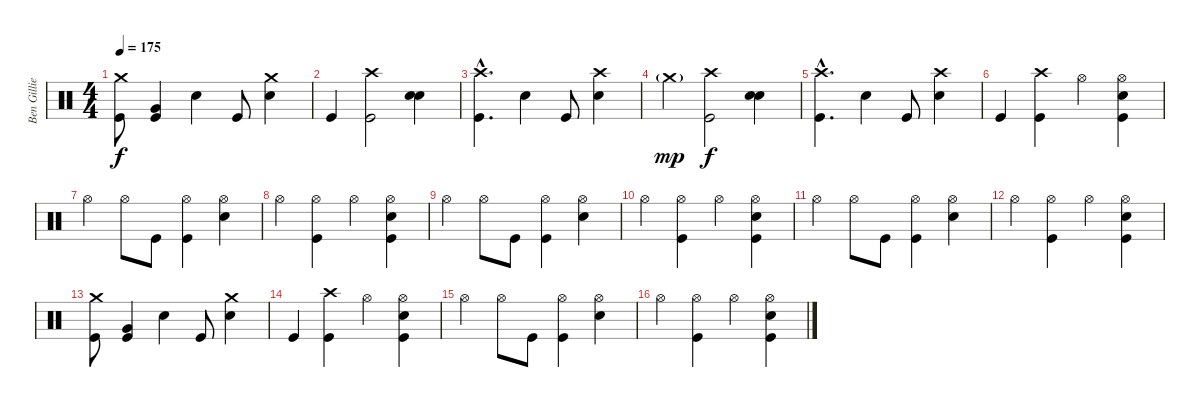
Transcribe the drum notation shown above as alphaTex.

\track ("Ben Gillies" "Ben Gillie") {instrument percussion}
\staff {score}
\articulation defaults
\ts (4 4)
\tempo 175
\clef neutral
\ks c
("Kick (hit)" "Crash medium (hit)").8{dy f} ("Kick (hit)" "Very Low Tom (hit)").4 "Snare (hit) 2".4 "Kick (hit)".8 ("Snare (hit) 2" "Crash medium (hit)").4 |
"Kick (hit)".4 ("Kick (hit)" "Crash high (hit)").2 ("Snare (hit) 2" "Snare (hit) 2").4{bu 60} |
("Kick (hit)"{hac} "Crash high (hit)"{hac}).4{d} "Snare (hit) 2".4 "Kick (hit)".8 ("Snare (hit) 2" "Crash high (hit)").4 |
"Crash medium (hit)"{g}.4{dy mp} ("Kick (hit)" "Crash high (hit)").2{dy f} ("Snare (hit) 2" "Snare (hit) 2").4{bu 60} |
("Kick (hit)"{hac} "Crash high (hit)"{hac}).4{d} "Snare (hit) 2".4 "Kick (hit)".8 ("Snare (hit) 2" "Crash high (hit)").4 |
"Kick (hit)".4 ("Kick (hit)" "Crash high (hit)").4 "Hi-Hat (open)".4 ("Kick (hit)" "Snare (hit) 2" "Hi-Hat (open)").4 |
"Hi-Hat (open)".4 "Hi-Hat (open)".8 "Kick (hit)".8 ("Kick (hit)" "Hi-Hat (open)").4 ("Snare (hit) 2" "Hi-Hat (open)").4 |
"Hi-Hat (open)".4 ("Kick (hit)" "Hi-Hat (open)").4 "Hi-Hat (open)".4 ("Kick (hit)" "Snare (hit) 2" "Hi-Hat (open)").4 |
"Hi-Hat (open)".4 "Hi-Hat (open)".8 "Kick (hit)".8 ("Kick (hit)" "Hi-Hat (open)").4 ("Snare (hit) 2" "Hi-Hat (open)").4 |
"Hi-Hat (open)".4 ("Kick (hit)" "Hi-Hat (open)").4 "Hi-Hat (open)".4 ("Kick (hit)" "Snare (hit) 2" "Hi-Hat (open)").4 |
"Hi-Hat (open)".4 "Hi-Hat (open)".8 "Kick (hit)".8 ("Kick (hit)" "Hi-Hat (open)").4 ("Snare (hit) 2" "Hi-Hat (open)").4 |
"Hi-Hat (open)".4 ("Kick (hit)" "Hi-Hat (open)").4 "Hi-Hat (open)".4 ("Kick (hit)" "Snare (hit) 2" "Hi-Hat (open)").4 |
("Kick (hit)" "Crash medium (hit)").8 ("Kick (hit)" "Very Low Tom (hit)").4 "Snare (hit) 2".4 "Kick (hit)".8 ("Snare (hit) 2" "Crash medium (hit)").4 |
"Kick (hit)".4 ("Kick (hit)" "Crash high (hit)").4 "Hi-Hat (open)".4 ("Kick (hit)" "Snare (hit) 2" "Hi-Hat (open)").4 |
"Hi-Hat (open)".4 "Hi-Hat (open)".8 "Kick (hit)".8 ("Kick (hit)" "Hi-Hat (open)").4 ("Snare (hit) 2" "Hi-Hat (open)").4 |
"Hi-Hat (open)".4 ("Kick (hit)" "Hi-Hat (open)").4 "Hi-Hat (open)".4 ("Kick (hit)" "Snare (hit) 2" "Hi-Hat (open)").4
